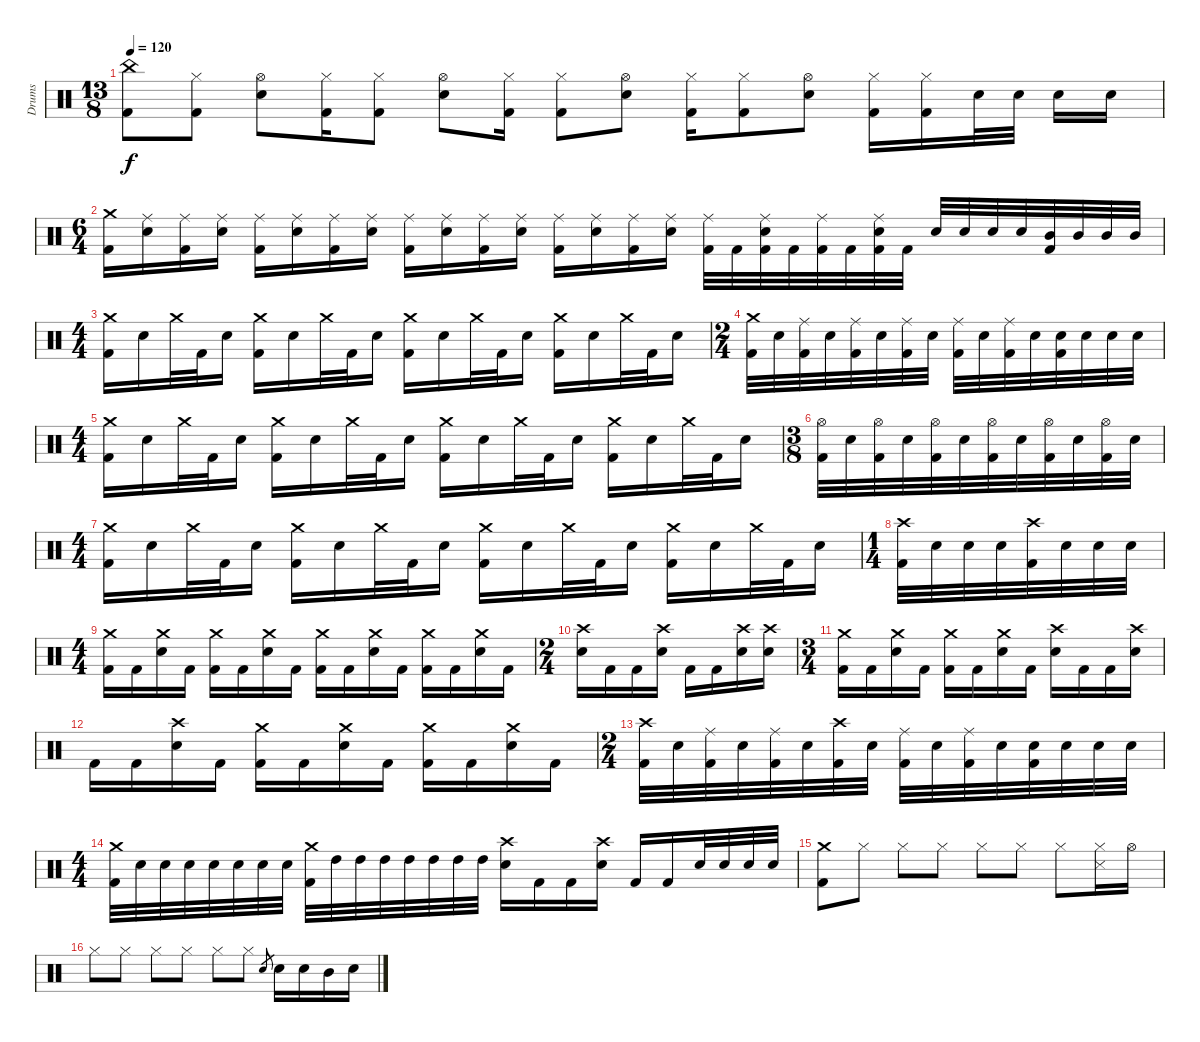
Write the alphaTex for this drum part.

\track ("Drums" "Drums") {instrument percussion}
\staff {score}
\articulation defaults
\ts (13 8)
\tempo 120
\clef neutral
\ks c
("China (hit)" "Kick (hit) 2").8{dy f} ("Hi-Hat (closed)" "Kick (hit) 2").8 ("Hi-Hat (open)" "Electric Snare (hit)").8 ("Hi-Hat (closed)" "Kick (hit) 2").16 ("Hi-Hat (closed)" "Kick (hit) 2").8 ("Hi-Hat (open)" "Electric Snare (hit)").8 ("Hi-Hat (closed)" "Kick (hit) 2").16 ("Hi-Hat (closed)" "Kick (hit) 2").8 ("Hi-Hat (open)" "Electric Snare (hit)").8 ("Hi-Hat (closed)" "Kick (hit) 2").16 ("Hi-Hat (closed)" "Kick (hit) 2").8 ("Hi-Hat (open)" "Electric Snare (hit)").8 ("Hi-Hat (closed)" "Kick (hit) 2").16 ("Hi-Hat (closed)" "Kick (hit) 2").16 "Electric Snare (hit)".32 "Electric Snare (hit)".32 "Electric Snare (hit)".16 "Electric Snare (hit)".16 |
\ts (6 4)
("Crash medium (hit)" "Kick (hit) 2").16 ("Ride (middle)" "Electric Snare (hit)").16 ("Ride (middle)" "Kick (hit) 2").16 ("Ride (middle)" "Electric Snare (hit)").16 ("Ride (middle)" "Kick (hit) 2").16 ("Ride (middle)" "Electric Snare (hit)").16 ("Ride (middle)" "Kick (hit) 2").16 ("Ride (middle)" "Electric Snare (hit)").16 ("Ride (middle)" "Kick (hit) 2").16 ("Ride (middle)" "Electric Snare (hit)").16 ("Ride (middle)" "Kick (hit) 2").16 ("Ride (middle)" "Electric Snare (hit)").16 ("Ride (middle)" "Kick (hit) 2").16 ("Ride (middle)" "Electric Snare (hit)").16 ("Ride (middle)" "Kick (hit) 2").16 ("Ride (middle)" "Electric Snare (hit)").16 ("Ride (middle)" "Kick (hit) 2").32 "Kick (hit) 2".32 ("Ride (middle)" "Electric Snare (hit)" "Kick (hit) 2").32 "Kick (hit) 2".32 ("Ride (middle)" "Kick (hit) 2").32 "Kick (hit) 2".32 ("Ride (middle)" "Electric Snare (hit)" "Kick (hit) 2").32 "Kick (hit) 2".32 "Electric Snare (hit)".32 "Electric Snare (hit)".32 "Electric Snare (hit)".32 "Electric Snare (hit)".32 ("Mid Tom (hit)" "Kick (hit) 2").32 "Mid Tom (hit)".32 "Mid Tom (hit)".32 "Mid Tom (hit)".32 |
\ts (4 4)
("Crash medium (hit)" "Kick (hit) 2").16 "Electric Snare (hit)".16 "Crash medium (hit)".32 "Kick (hit) 2".32 "Electric Snare (hit)".16 ("Crash medium (hit)" "Kick (hit) 2").16 "Electric Snare (hit)".16 "Crash medium (hit)".32 "Kick (hit) 2".32 "Electric Snare (hit)".16 ("Crash medium (hit)" "Kick (hit) 2").16 "Electric Snare (hit)".16 "Crash medium (hit)".32 "Kick (hit) 2".32 "Electric Snare (hit)".16 ("Crash medium (hit)" "Kick (hit) 2").16 "Electric Snare (hit)".16 "Crash medium (hit)".32 "Kick (hit) 2".32 "Electric Snare (hit)".16 |
\ts (2 4)
("Crash medium (hit)" "Kick (hit) 2").32 "Electric Snare (hit)".32 ("Ride (middle)" "Kick (hit) 2").32 "Electric Snare (hit)".32 ("Ride (middle)" "Kick (hit) 2").32 "Electric Snare (hit)".32 ("Ride (middle)" "Kick (hit) 2").32 "Electric Snare (hit)".32 ("Ride (middle)" "Kick (hit) 2").32 "Electric Snare (hit)".32 ("Ride (middle)" "Kick (hit) 2").32 "Electric Snare (hit)".32 ("Electric Snare (hit)" "Kick (hit) 2").32 "Electric Snare (hit)".32 "Electric Snare (hit)".32 "Electric Snare (hit)".32 |
\ts (4 4)
("Crash medium (hit)" "Kick (hit) 2").16 "Electric Snare (hit)".16 "Crash medium (hit)".32 "Kick (hit) 2".32 "Electric Snare (hit)".16 ("Crash medium (hit)" "Kick (hit) 2").16 "Electric Snare (hit)".16 "Crash medium (hit)".32 "Kick (hit) 2".32 "Electric Snare (hit)".16 ("Crash medium (hit)" "Kick (hit) 2").16 "Electric Snare (hit)".16 "Crash medium (hit)".32 "Kick (hit) 2".32 "Electric Snare (hit)".16 ("Crash medium (hit)" "Kick (hit) 2").16 "Electric Snare (hit)".16 "Crash medium (hit)".32 "Kick (hit) 2".32 "Electric Snare (hit)".16 |
\ts (3 8)
("Hi-Hat (open)" "Kick (hit) 2").32 "Electric Snare (hit)".32 ("Hi-Hat (open)" "Kick (hit) 2").32 "Electric Snare (hit)".32 ("Hi-Hat (open)" "Kick (hit) 2").32 "Electric Snare (hit)".32 ("Hi-Hat (open)" "Kick (hit) 2").32 "Electric Snare (hit)".32 ("Hi-Hat (open)" "Kick (hit) 2").32 "Electric Snare (hit)".32 ("Hi-Hat (open)" "Kick (hit) 2").32 "Electric Snare (hit)".32 |
\ts (4 4)
("Crash medium (hit)" "Kick (hit) 2").16 "Electric Snare (hit)".16 "Crash medium (hit)".32 "Kick (hit) 2".32 "Electric Snare (hit)".16 ("Crash medium (hit)" "Kick (hit) 2").16 "Electric Snare (hit)".16 "Crash medium (hit)".32 "Kick (hit) 2".32 "Electric Snare (hit)".16 ("Crash medium (hit)" "Kick (hit) 2").16 "Electric Snare (hit)".16 "Crash medium (hit)".32 "Kick (hit) 2".32 "Electric Snare (hit)".16 ("Crash medium (hit)" "Kick (hit) 2").16 "Electric Snare (hit)".16 "Crash medium (hit)".32 "Kick (hit) 2".32 "Electric Snare (hit)".16 |
\ts (1 4)
("Crash high (hit)" "Kick (hit) 2").32 "Electric Snare (hit)".32 "Electric Snare (hit)".32 "Electric Snare (hit)".32 ("Crash high (hit)" "Kick (hit) 2").32 "Electric Snare (hit)".32 "Electric Snare (hit)".32 "Electric Snare (hit)".32 |
\ts (4 4)
("Crash medium (hit)" "Kick (hit) 2").16 "Kick (hit) 2".16 ("Crash medium (hit)" "Electric Snare (hit)").16 "Kick (hit) 2".16 ("Crash medium (hit)" "Kick (hit) 2").16 "Kick (hit) 2".16 ("Crash medium (hit)" "Electric Snare (hit)").16 "Kick (hit) 2".16 ("Crash medium (hit)" "Kick (hit) 2").16 "Kick (hit) 2".16 ("Crash medium (hit)" "Electric Snare (hit)").16 "Kick (hit) 2".16 ("Crash medium (hit)" "Kick (hit) 2").16 "Kick (hit) 2".16 ("Crash medium (hit)" "Electric Snare (hit)").16 "Kick (hit) 2".16 |
\ts (2 4)
("Crash high (hit)" "Electric Snare (hit)").16 "Kick (hit) 2".16 "Kick (hit) 2".16 ("Crash high (hit)" "Electric Snare (hit)").16 "Kick (hit) 2".16 "Kick (hit) 2".16 ("Crash high (hit)" "Electric Snare (hit)").16 ("Crash high (hit)" "Electric Snare (hit)").16 |
\ts (3 4)
("Crash medium (hit)" "Kick (hit) 2").16 "Kick (hit) 2".16 ("Crash medium (hit)" "Electric Snare (hit)").16 "Kick (hit) 2".16 ("Crash medium (hit)" "Kick (hit) 2").16 "Kick (hit) 2".16 ("Crash medium (hit)" "Electric Snare (hit)").16 "Kick (hit) 2".16 ("Crash high (hit)" "Electric Snare (hit)").16 "Kick (hit) 2".16 "Kick (hit) 2".16 ("Crash high (hit)" "Electric Snare (hit)").16 |
"Kick (hit) 2".16 "Kick (hit) 2".16 ("Crash high (hit)" "Electric Snare (hit)").16 "Kick (hit) 2".16 ("Crash medium (hit)" "Kick (hit) 2").16 "Kick (hit) 2".16 ("Crash medium (hit)" "Electric Snare (hit)").16 "Kick (hit) 2".16 ("Crash medium (hit)" "Kick (hit) 2").16 "Kick (hit) 2".16 ("Crash medium (hit)" "Electric Snare (hit)").16 "Kick (hit) 2".16 |
\ts (2 4)
("Crash high (hit)" "Kick (hit) 2").32 "Electric Snare (hit)".32 ("Ride (middle)" "Kick (hit) 2").32 "Electric Snare (hit)".32 ("Ride (middle)" "Kick (hit) 2").32 "Electric Snare (hit)".32 ("Crash high (hit)" "Kick (hit) 2").32 "Electric Snare (hit)".32 ("Ride (middle)" "Kick (hit) 2").32 "Electric Snare (hit)".32 ("Ride (middle)" "Kick (hit) 2").32 "Electric Snare (hit)".32 ("Electric Snare (hit)" "Kick (hit) 2").32 "Electric Snare (hit)".32 "Electric Snare (hit)".32 "Electric Snare (hit)".32 |
\ts (4 4)
("Crash medium (hit)" "Kick (hit) 2").32 "Electric Snare (hit)".32 "Electric Snare (hit)".32 "Electric Snare (hit)".32 "Electric Snare (hit)".32 "Electric Snare (hit)".32 "Electric Snare (hit)".32 "Electric Snare (hit)".32 ("Crash medium (hit)" "Kick (hit) 2").32 "High Tom (hit)".32 "High Tom (hit)".32 "High Tom (hit)".32 "High Tom (hit)".32 "High Tom (hit)".32 "High Tom (hit)".32 "High Tom (hit)".32 ("Crash high (hit)" "Electric Snare (hit)").16 "Kick (hit) 2".16 "Kick (hit) 2".16 ("Crash high (hit)" "Electric Snare (hit)").16 "Kick (hit) 2".16 "Kick (hit) 2".16 "Electric Snare (hit)".32 "Electric Snare (hit)".32 "Electric Snare (hit)".32 "Electric Snare (hit)".32 |
("Crash medium (hit)" "Kick (hit) 2").8 "Hi-Hat (closed)".8 "Hi-Hat (closed)".8 "Hi-Hat (closed)".8 "Hi-Hat (closed)".8 "Hi-Hat (closed)".8 "Hi-Hat (closed)".8 ("Hi-Hat (closed)" "Snare (side stick) 3").16 "Hi-Hat (open)".16 |
"Hi-Hat (closed)".8 "Hi-Hat (closed)".8 "Hi-Hat (closed)".8 "Hi-Hat (closed)".8 "Hi-Hat (closed)".8 "Hi-Hat (closed)".8 "Electric Snare (hit)".8{gr} "Electric Snare (hit)".16 "Electric Snare (hit)".16 "Mid Tom (hit)".16 "Electric Snare (hit)".16
